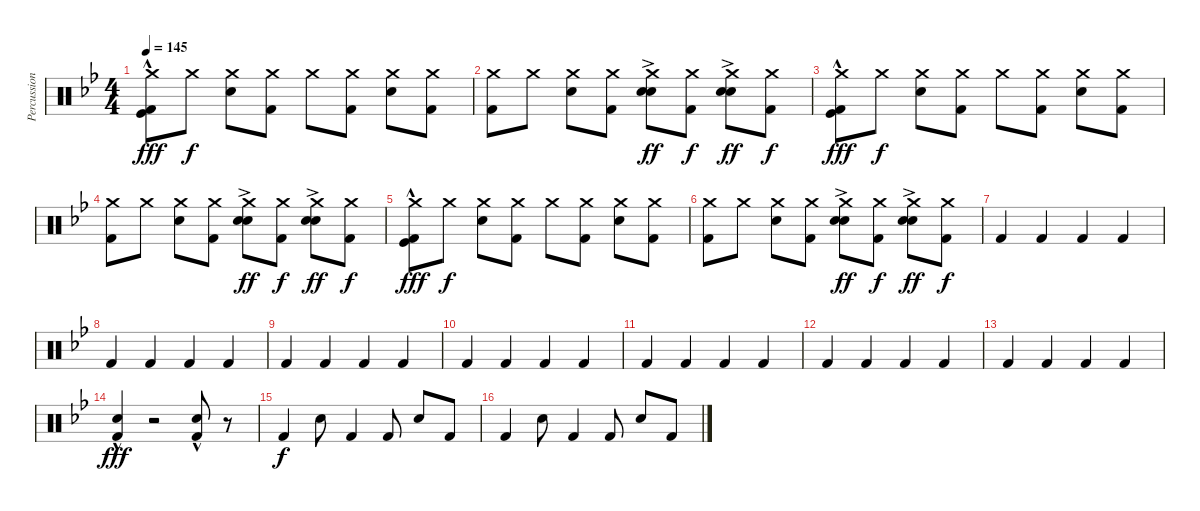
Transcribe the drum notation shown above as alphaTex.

\track ("Percussion" "Percussion") {instrument percussion}
\staff {score}
\articulation defaults
\ts (4 4)
\tempo 145
\clef neutral
\ks gminor
("Crash medium (hit)" "Kick (hit) 2"{hac} "Kick (hit)"{hac}).8{dy fff} "Crash medium (hit)".8{dy f} ("Crash medium (hit)" "Electric Snare (hit)").8 ("Crash medium (hit)" "Kick (hit) 2").8 "Crash medium (hit)".8 ("Crash medium (hit)" "Kick (hit) 2").8 ("Crash medium (hit)" "Electric Snare (hit)").8 ("Crash medium (hit)" "Kick (hit) 2").8 |
("Crash medium (hit)" "Kick (hit) 2").8 "Crash medium (hit)".8 ("Crash medium (hit)" "Electric Snare (hit)").8 ("Crash medium (hit)" "Kick (hit) 2").8 ("Crash medium (hit)" "Hand Clap (hit)"{ac} "Electric Snare (hit)").8{dy ff} ("Crash medium (hit)" "Kick (hit) 2").8{dy f} ("Crash medium (hit)" "Hand Clap (hit)"{ac} "Electric Snare (hit)").8{dy ff} ("Crash medium (hit)" "Kick (hit) 2").8{dy f} |
("Crash medium (hit)" "Kick (hit) 2"{hac} "Kick (hit)"{hac}).8{dy fff} "Crash medium (hit)".8{dy f} ("Crash medium (hit)" "Electric Snare (hit)").8 ("Crash medium (hit)" "Kick (hit) 2").8 "Crash medium (hit)".8 ("Crash medium (hit)" "Kick (hit) 2").8 ("Crash medium (hit)" "Electric Snare (hit)").8 ("Crash medium (hit)" "Kick (hit) 2").8 |
("Crash medium (hit)" "Kick (hit) 2").8 "Crash medium (hit)".8 ("Crash medium (hit)" "Electric Snare (hit)").8 ("Crash medium (hit)" "Kick (hit) 2").8 ("Crash medium (hit)" "Hand Clap (hit)"{ac} "Electric Snare (hit)").8{dy ff} ("Crash medium (hit)" "Kick (hit) 2").8{dy f} ("Crash medium (hit)" "Hand Clap (hit)"{ac} "Electric Snare (hit)").8{dy ff} ("Crash medium (hit)" "Kick (hit) 2").8{dy f} |
("Crash medium (hit)" "Kick (hit) 2"{hac} "Kick (hit)"{hac}).8{dy fff} "Crash medium (hit)".8{dy f} ("Crash medium (hit)" "Electric Snare (hit)").8 ("Crash medium (hit)" "Kick (hit) 2").8 "Crash medium (hit)".8 ("Crash medium (hit)" "Kick (hit) 2").8 ("Crash medium (hit)" "Electric Snare (hit)").8 ("Crash medium (hit)" "Kick (hit) 2").8 |
("Crash medium (hit)" "Kick (hit) 2").8 "Crash medium (hit)".8 ("Crash medium (hit)" "Electric Snare (hit)").8 ("Crash medium (hit)" "Kick (hit) 2").8 ("Crash medium (hit)" "Hand Clap (hit)"{ac} "Electric Snare (hit)").8{dy ff} ("Crash medium (hit)" "Kick (hit) 2").8{dy f} ("Crash medium (hit)" "Hand Clap (hit)"{ac} "Electric Snare (hit)").8{dy ff} ("Crash medium (hit)" "Kick (hit) 2").8{dy f} |
"Kick (hit) 2".4 "Kick (hit) 2".4 "Kick (hit) 2".4 "Kick (hit) 2".4 |
"Kick (hit) 2".4 "Kick (hit) 2".4 "Kick (hit) 2".4 "Kick (hit) 2".4 |
"Kick (hit) 2".4 "Kick (hit) 2".4 "Kick (hit) 2".4 "Kick (hit) 2".4 |
"Kick (hit) 2".4 "Kick (hit) 2".4 "Kick (hit) 2".4 "Kick (hit) 2".4 |
"Kick (hit) 2".4 "Kick (hit) 2".4 "Kick (hit) 2".4 "Kick (hit) 2".4 |
"Kick (hit) 2".4 "Kick (hit) 2".4 "Kick (hit) 2".4 "Kick (hit) 2".4 |
"Kick (hit) 2".4 "Kick (hit) 2".4 "Kick (hit) 2".4 "Kick (hit) 2".4 |
("Electric Snare (hit)"{hac} "Kick (hit) 2").4{dy fff} r.2 ("Electric Snare (hit)"{hac} "Kick (hit) 2").8 r.8 |
"Kick (hit) 2".4{dy f} "Electric Snare (hit)".8 "Kick (hit) 2".4 "Kick (hit) 2".8 "Electric Snare (hit)".8 "Kick (hit) 2".8 |
"Kick (hit) 2".4 "Electric Snare (hit)".8 "Kick (hit) 2".4 "Kick (hit) 2".8 "Electric Snare (hit)".8 "Kick (hit) 2".8
